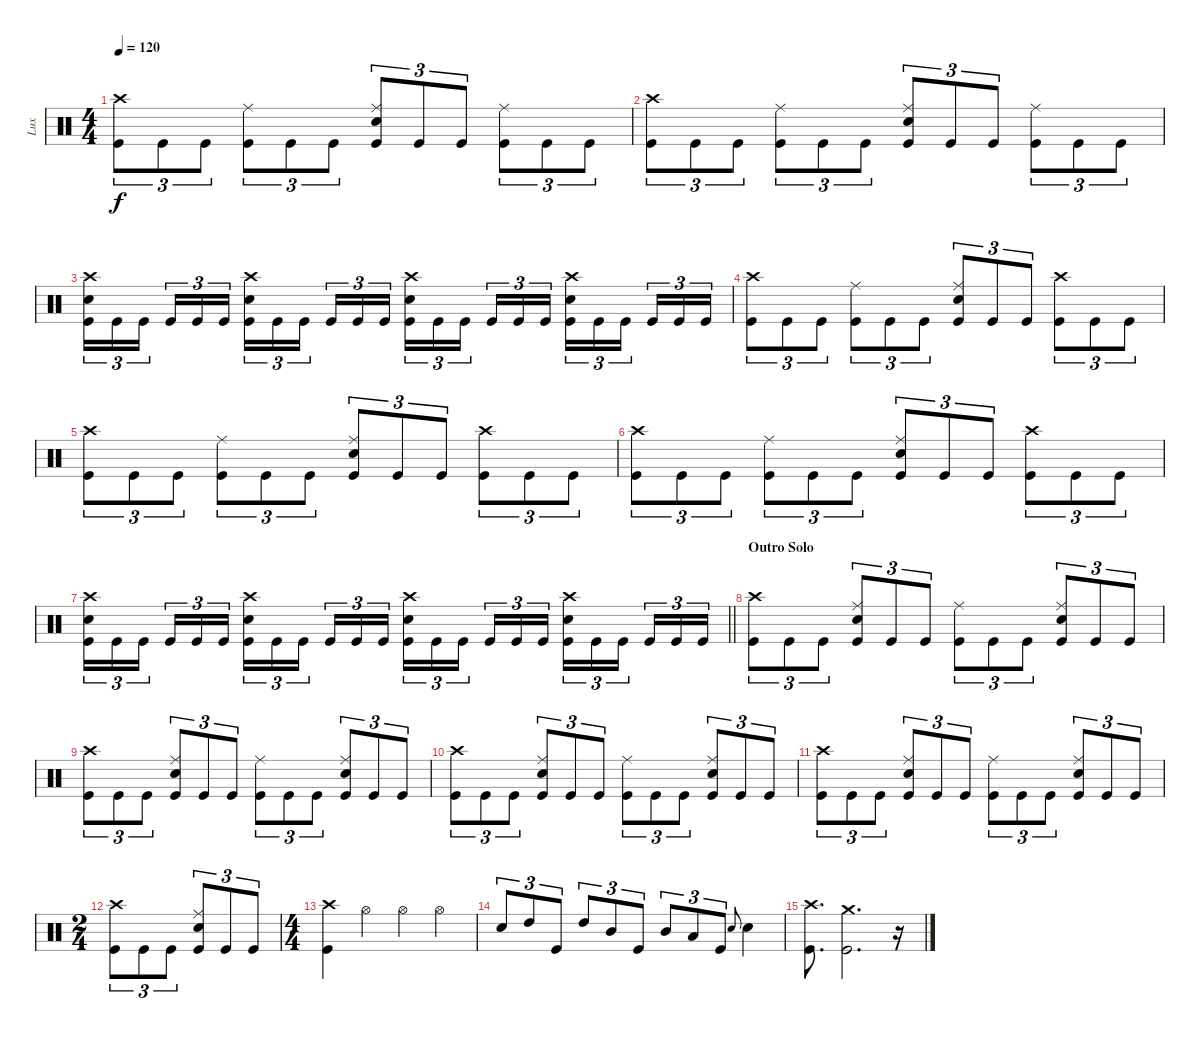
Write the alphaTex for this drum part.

\track ("Lux" "Lux") {instrument percussion}
\staff {score}
\articulation defaults
\ts (4 4)
\tempo 120
\clef neutral
\ks c
("Crash high (hit)" "Kick (hit)").8{tu (3 2) dy f} "Kick (hit)".8{tu (3 2)} "Kick (hit)".8{tu (3 2)} ("Ride (middle)" "Kick (hit)").8{tu (3 2)} "Kick (hit)".8{tu (3 2)} "Kick (hit)".8{tu (3 2)} ("Ride (middle)" "Snare (hit) 2" "Kick (hit)").8{tu (3 2)} "Kick (hit)".8{tu (3 2)} "Kick (hit)".8{tu (3 2)} ("Ride (middle)" "Kick (hit)").8{tu (3 2)} "Kick (hit)".8{tu (3 2)} "Kick (hit)".8{tu (3 2)} |
("Crash high (hit)" "Kick (hit)").8{tu (3 2)} "Kick (hit)".8{tu (3 2)} "Kick (hit)".8{tu (3 2)} ("Ride (middle)" "Kick (hit)").8{tu (3 2)} "Kick (hit)".8{tu (3 2)} "Kick (hit)".8{tu (3 2)} ("Ride (middle)" "Snare (hit) 2" "Kick (hit)").8{tu (3 2)} "Kick (hit)".8{tu (3 2)} "Kick (hit)".8{tu (3 2)} ("Ride (middle)" "Kick (hit)").8{tu (3 2)} "Kick (hit)".8{tu (3 2)} "Kick (hit)".8{tu (3 2)} |
("Crash high (hit)" "Snare (hit) 2" "Kick (hit)").16{tu (3 2)} "Kick (hit)".16{tu (3 2)} "Kick (hit)".16{tu (3 2) beam splitsecondary} "Kick (hit)".16{tu (3 2)} "Kick (hit)".16{tu (3 2)} "Kick (hit)".16{tu (3 2)} ("Crash high (hit)" "Snare (hit) 2" "Kick (hit)").16{tu (3 2)} "Kick (hit)".16{tu (3 2)} "Kick (hit)".16{tu (3 2) beam splitsecondary} "Kick (hit)".16{tu (3 2)} "Kick (hit)".16{tu (3 2)} "Kick (hit)".16{tu (3 2)} ("Crash high (hit)" "Snare (hit) 2" "Kick (hit)").16{tu (3 2)} "Kick (hit)".16{tu (3 2)} "Kick (hit)".16{tu (3 2) beam splitsecondary} "Kick (hit)".16{tu (3 2)} "Kick (hit)".16{tu (3 2)} "Kick (hit)".16{tu (3 2)} ("Crash high (hit)" "Snare (hit) 2" "Kick (hit)").16{tu (3 2)} "Kick (hit)".16{tu (3 2)} "Kick (hit)".16{tu (3 2) beam splitsecondary} "Kick (hit)".16{tu (3 2)} "Kick (hit)".16{tu (3 2)} "Kick (hit)".16{tu (3 2)} |
("Crash high (hit)" "Kick (hit)").8{tu (3 2)} "Kick (hit)".8{tu (3 2)} "Kick (hit)".8{tu (3 2)} ("Ride (middle)" "Kick (hit)").8{tu (3 2)} "Kick (hit)".8{tu (3 2)} "Kick (hit)".8{tu (3 2)} ("Ride (middle)" "Snare (hit) 2" "Kick (hit)").8{tu (3 2)} "Kick (hit)".8{tu (3 2)} "Kick (hit)".8{tu (3 2)} ("Crash high (hit)" "Kick (hit)").8{tu (3 2)} "Kick (hit)".8{tu (3 2)} "Kick (hit)".8{tu (3 2)} |
("Crash high (hit)" "Kick (hit)").8{tu (3 2)} "Kick (hit)".8{tu (3 2)} "Kick (hit)".8{tu (3 2)} ("Ride (middle)" "Kick (hit)").8{tu (3 2)} "Kick (hit)".8{tu (3 2)} "Kick (hit)".8{tu (3 2)} ("Ride (middle)" "Snare (hit) 2" "Kick (hit)").8{tu (3 2)} "Kick (hit)".8{tu (3 2)} "Kick (hit)".8{tu (3 2)} ("Crash high (hit)" "Kick (hit)").8{tu (3 2)} "Kick (hit)".8{tu (3 2)} "Kick (hit)".8{tu (3 2)} |
("Crash high (hit)" "Kick (hit)").8{tu (3 2)} "Kick (hit)".8{tu (3 2)} "Kick (hit)".8{tu (3 2)} ("Ride (middle)" "Kick (hit)").8{tu (3 2)} "Kick (hit)".8{tu (3 2)} "Kick (hit)".8{tu (3 2)} ("Ride (middle)" "Snare (hit) 2" "Kick (hit)").8{tu (3 2)} "Kick (hit)".8{tu (3 2)} "Kick (hit)".8{tu (3 2)} ("Crash high (hit)" "Kick (hit)").8{tu (3 2)} "Kick (hit)".8{tu (3 2)} "Kick (hit)".8{tu (3 2)} |
\barLineRight lightlight
("Crash high (hit)" "Snare (hit) 2" "Kick (hit)").16{tu (3 2)} "Kick (hit)".16{tu (3 2)} "Kick (hit)".16{tu (3 2) beam splitsecondary} "Kick (hit)".16{tu (3 2)} "Kick (hit)".16{tu (3 2)} "Kick (hit)".16{tu (3 2)} ("Crash high (hit)" "Snare (hit) 2" "Kick (hit)").16{tu (3 2)} "Kick (hit)".16{tu (3 2)} "Kick (hit)".16{tu (3 2) beam splitsecondary} "Kick (hit)".16{tu (3 2)} "Kick (hit)".16{tu (3 2)} "Kick (hit)".16{tu (3 2)} ("Crash high (hit)" "Snare (hit) 2" "Kick (hit)").16{tu (3 2)} "Kick (hit)".16{tu (3 2)} "Kick (hit)".16{tu (3 2) beam splitsecondary} "Kick (hit)".16{tu (3 2)} "Kick (hit)".16{tu (3 2)} "Kick (hit)".16{tu (3 2)} ("Crash high (hit)" "Snare (hit) 2" "Kick (hit)").16{tu (3 2)} "Kick (hit)".16{tu (3 2)} "Kick (hit)".16{tu (3 2) beam splitsecondary} "Kick (hit)".16{tu (3 2)} "Kick (hit)".16{tu (3 2)} "Kick (hit)".16{tu (3 2)} |
\section ("" "Outro Solo")
("Crash high (hit)" "Kick (hit)").8{tu (3 2)} "Kick (hit)".8{tu (3 2)} "Kick (hit)".8{tu (3 2)} ("Ride (middle)" "Snare (hit) 2" "Kick (hit)").8{tu (3 2)} "Kick (hit)".8{tu (3 2)} "Kick (hit)".8{tu (3 2)} ("Ride (middle)" "Kick (hit)").8{tu (3 2)} "Kick (hit)".8{tu (3 2)} "Kick (hit)".8{tu (3 2)} ("Ride (middle)" "Snare (hit) 2" "Kick (hit)").8{tu (3 2)} "Kick (hit)".8{tu (3 2)} "Kick (hit)".8{tu (3 2)} |
("Crash high (hit)" "Kick (hit)").8{tu (3 2)} "Kick (hit)".8{tu (3 2)} "Kick (hit)".8{tu (3 2)} ("Ride (middle)" "Snare (hit) 2" "Kick (hit)").8{tu (3 2)} "Kick (hit)".8{tu (3 2)} "Kick (hit)".8{tu (3 2)} ("Ride (middle)" "Kick (hit)").8{tu (3 2)} "Kick (hit)".8{tu (3 2)} "Kick (hit)".8{tu (3 2)} ("Ride (middle)" "Snare (hit) 2" "Kick (hit)").8{tu (3 2)} "Kick (hit)".8{tu (3 2)} "Kick (hit)".8{tu (3 2)} |
("Crash high (hit)" "Kick (hit)").8{tu (3 2)} "Kick (hit)".8{tu (3 2)} "Kick (hit)".8{tu (3 2)} ("Ride (middle)" "Snare (hit) 2" "Kick (hit)").8{tu (3 2)} "Kick (hit)".8{tu (3 2)} "Kick (hit)".8{tu (3 2)} ("Ride (middle)" "Kick (hit)").8{tu (3 2)} "Kick (hit)".8{tu (3 2)} "Kick (hit)".8{tu (3 2)} ("Ride (middle)" "Snare (hit) 2" "Kick (hit)").8{tu (3 2)} "Kick (hit)".8{tu (3 2)} "Kick (hit)".8{tu (3 2)} |
("Crash high (hit)" "Kick (hit)").8{tu (3 2)} "Kick (hit)".8{tu (3 2)} "Kick (hit)".8{tu (3 2)} ("Ride (middle)" "Snare (hit) 2" "Kick (hit)").8{tu (3 2)} "Kick (hit)".8{tu (3 2)} "Kick (hit)".8{tu (3 2)} ("Ride (middle)" "Kick (hit)").8{tu (3 2)} "Kick (hit)".8{tu (3 2)} "Kick (hit)".8{tu (3 2)} ("Ride (middle)" "Snare (hit) 2" "Kick (hit)").8{tu (3 2)} "Kick (hit)".8{tu (3 2)} "Kick (hit)".8{tu (3 2)} |
\ts (2 4)
("Crash high (hit)" "Kick (hit)").8{tu (3 2)} "Kick (hit)".8{tu (3 2)} "Kick (hit)".8{tu (3 2)} ("Ride (middle)" "Snare (hit) 2" "Kick (hit)").8{tu (3 2)} "Kick (hit)".8{tu (3 2)} "Kick (hit)".8{tu (3 2)} |
\ts (4 4)
("Crash high (hit)" "Kick (hit)").4 "Hi-Hat (open)".4 "Hi-Hat (open)".4 "Hi-Hat (open)".4 |
"Snare (hit) 2".8{tu (3 2)} "High Tom (hit)".8{tu (3 2)} "Kick (hit)".8{tu (3 2)} "High Tom (hit)".8{tu (3 2)} "Mid Tom (hit)".8{tu (3 2)} "Kick (hit)".8{tu (3 2)} "Mid Tom (hit)".8{tu (3 2)} "Low Tom (hit)".8{tu (3 2)} "Kick (hit)".8{tu (3 2)} "Snare (hit) 2".8{gr onbeat} "Snare (hit) 2".4 |
("Crash high (hit)" "Kick (hit)").8{d} ("Crash medium (hit)" "Kick (hit)").2{d} r.16
